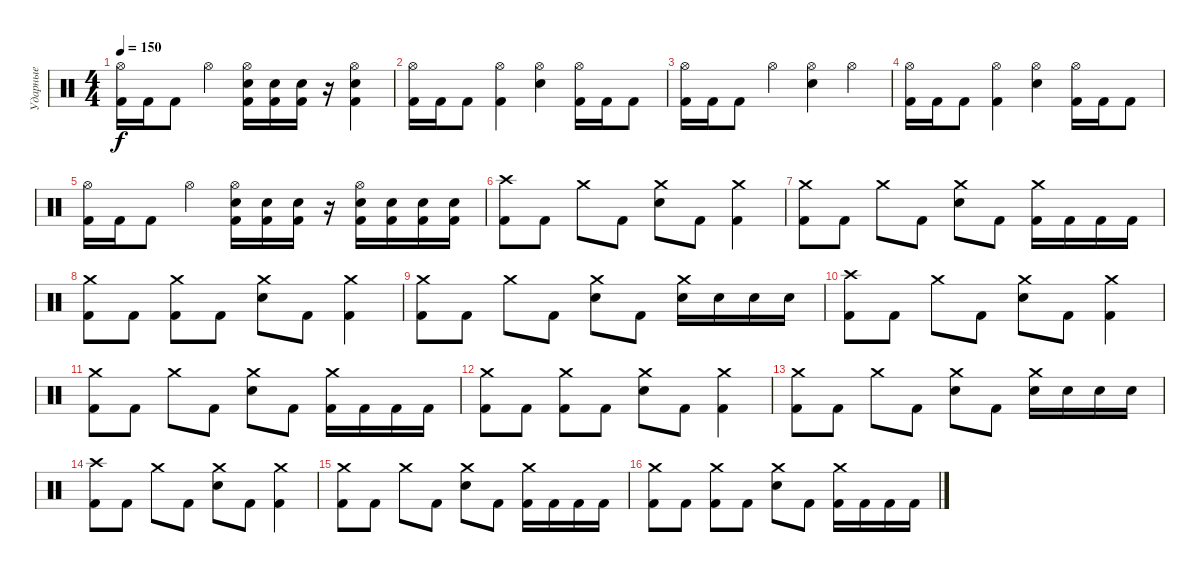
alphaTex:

\track ("Ударные" "Ударные") {instrument percussion}
\staff {score}
\articulation defaults
\ts (4 4)
\tempo 150
\clef neutral
\ks c
("Hi-Hat (open)" "Kick (hit) 2").16{dy f} "Kick (hit) 2".16 "Kick (hit) 2".8 "Hi-Hat (open)".4 ("Hi-Hat (open)" "Electric Snare (hit)" "Kick (hit) 2").16 ("Electric Snare (hit)" "Kick (hit) 2").16 ("Electric Snare (hit)" "Kick (hit) 2").16 r.16 ("Hi-Hat (open)" "Electric Snare (hit)" "Kick (hit) 2").4 |
("Hi-Hat (open)" "Kick (hit) 2").16 "Kick (hit) 2".16 "Kick (hit) 2".8 ("Hi-Hat (open)" "Kick (hit) 2").4 ("Hi-Hat (open)" "Electric Snare (hit)").4 ("Hi-Hat (open)" "Kick (hit) 2").16 "Kick (hit) 2".16 "Kick (hit) 2".8 |
("Hi-Hat (open)" "Kick (hit) 2").16 "Kick (hit) 2".16 "Kick (hit) 2".8 "Hi-Hat (open)".4 ("Hi-Hat (open)" "Electric Snare (hit)").4 "Hi-Hat (open)".4 |
("Hi-Hat (open)" "Kick (hit) 2").16 "Kick (hit) 2".16 "Kick (hit) 2".8 ("Hi-Hat (open)" "Kick (hit) 2").4 ("Hi-Hat (open)" "Electric Snare (hit)").4 ("Hi-Hat (open)" "Kick (hit) 2").16 "Kick (hit) 2".16 "Kick (hit) 2".8 |
("Hi-Hat (open)" "Kick (hit) 2").16 "Kick (hit) 2".16 "Kick (hit) 2".8 "Hi-Hat (open)".4 ("Hi-Hat (open)" "Electric Snare (hit)" "Kick (hit) 2").16 ("Electric Snare (hit)" "Kick (hit) 2").16 ("Electric Snare (hit)" "Kick (hit) 2").16 r.16 ("Hi-Hat (open)" "Electric Snare (hit)" "Kick (hit) 2").16 ("Electric Snare (hit)" "Kick (hit) 2").16 ("Electric Snare (hit)" "Kick (hit) 2").16 ("Electric Snare (hit)" "Kick (hit) 2").16 |
("Crash high (hit)" "Kick (hit) 2").8 "Kick (hit) 2".8 "Crash medium (hit)".8 "Kick (hit) 2".8 ("Crash medium (hit)" "Electric Snare (hit)").8 "Kick (hit) 2".8 ("Crash medium (hit)" "Kick (hit) 2").4 |
("Crash medium (hit)" "Kick (hit) 2").8 "Kick (hit) 2".8 "Crash medium (hit)".8 "Kick (hit) 2".8 ("Crash medium (hit)" "Electric Snare (hit)").8 "Kick (hit) 2".8 ("Crash medium (hit)" "Kick (hit) 2").16 "Kick (hit) 2".16 "Kick (hit) 2".16 "Kick (hit) 2".16 |
("Crash medium (hit)" "Kick (hit) 2").8 "Kick (hit) 2".8 ("Crash medium (hit)" "Kick (hit) 2").8 "Kick (hit) 2".8 ("Crash medium (hit)" "Electric Snare (hit)").8 "Kick (hit) 2".8 ("Crash medium (hit)" "Kick (hit) 2").4 |
("Crash medium (hit)" "Kick (hit) 2").8 "Kick (hit) 2".8 "Crash medium (hit)".8 "Kick (hit) 2".8 ("Crash medium (hit)" "Electric Snare (hit)").8 "Kick (hit) 2".8 ("Crash medium (hit)" "Electric Snare (hit)").16 "Electric Snare (hit)".16 "Electric Snare (hit)".16 "Electric Snare (hit)".16 |
("Crash high (hit)" "Kick (hit) 2").8 "Kick (hit) 2".8 "Crash medium (hit)".8 "Kick (hit) 2".8 ("Crash medium (hit)" "Electric Snare (hit)").8 "Kick (hit) 2".8 ("Crash medium (hit)" "Kick (hit) 2").4 |
("Crash medium (hit)" "Kick (hit) 2").8 "Kick (hit) 2".8 "Crash medium (hit)".8 "Kick (hit) 2".8 ("Crash medium (hit)" "Electric Snare (hit)").8 "Kick (hit) 2".8 ("Crash medium (hit)" "Kick (hit) 2").16 "Kick (hit) 2".16 "Kick (hit) 2".16 "Kick (hit) 2".16 |
("Crash medium (hit)" "Kick (hit) 2").8 "Kick (hit) 2".8 ("Crash medium (hit)" "Kick (hit) 2").8 "Kick (hit) 2".8 ("Crash medium (hit)" "Electric Snare (hit)").8 "Kick (hit) 2".8 ("Crash medium (hit)" "Kick (hit) 2").4 |
("Crash medium (hit)" "Kick (hit) 2").8 "Kick (hit) 2".8 "Crash medium (hit)".8 "Kick (hit) 2".8 ("Crash medium (hit)" "Electric Snare (hit)").8 "Kick (hit) 2".8 ("Crash medium (hit)" "Electric Snare (hit)").16 "Electric Snare (hit)".16 "Electric Snare (hit)".16 "Electric Snare (hit)".16 |
("Crash high (hit)" "Kick (hit) 2").8 "Kick (hit) 2".8 "Crash medium (hit)".8 "Kick (hit) 2".8 ("Crash medium (hit)" "Electric Snare (hit)").8 "Kick (hit) 2".8 ("Crash medium (hit)" "Kick (hit) 2").4 |
("Crash medium (hit)" "Kick (hit) 2").8 "Kick (hit) 2".8 "Crash medium (hit)".8 "Kick (hit) 2".8 ("Crash medium (hit)" "Electric Snare (hit)").8 "Kick (hit) 2".8 ("Crash medium (hit)" "Kick (hit) 2").16 "Kick (hit) 2".16 "Kick (hit) 2".16 "Kick (hit) 2".16 |
("Crash medium (hit)" "Kick (hit) 2").8 "Kick (hit) 2".8 ("Crash medium (hit)" "Kick (hit) 2").8 "Kick (hit) 2".8 ("Crash medium (hit)" "Electric Snare (hit)").8 "Kick (hit) 2".8 ("Crash medium (hit)" "Kick (hit) 2").16 "Kick (hit) 2".16 "Kick (hit) 2".16 "Kick (hit) 2".16
